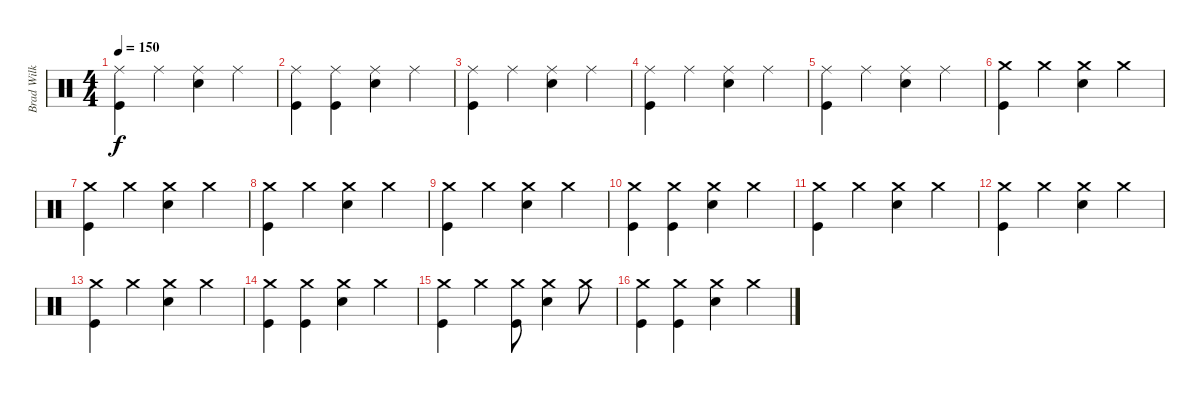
\track ("Brad Wilk" "Brad Wilk") {instrument percussion}
\staff {score}
\articulation defaults
\ts (4 4)
\tempo 150
\clef neutral
\ks c
("Ride (middle)" "Kick (hit)").4{dy f} "Ride (middle)".4 ("Ride (middle)" "Electric Snare (hit)").4 "Ride (middle)".4 |
("Ride (middle)" "Kick (hit)").4 ("Ride (middle)" "Kick (hit)").4 ("Ride (middle)" "Electric Snare (hit)").4 "Ride (middle)".4 |
("Ride (middle)" "Kick (hit)").4 "Ride (middle)".4 ("Ride (middle)" "Electric Snare (hit)").4 "Ride (middle)".4 |
("Ride (middle)" "Kick (hit)").4 "Ride (middle)".4 ("Ride (middle)" "Electric Snare (hit)").4 "Ride (middle)".4 |
("Ride (middle)" "Kick (hit)").4 "Ride (middle)".4 ("Ride (middle)" "Electric Snare (hit)").4 "Ride (middle)".4 |
("Crash medium (hit)" "Kick (hit)").4 "Crash medium (hit)".4 ("Crash medium (hit)" "Electric Snare (hit)").4 "Crash medium (hit)".4 |
("Crash medium (hit)" "Kick (hit)").4 "Crash medium (hit)".4 ("Crash medium (hit)" "Electric Snare (hit)").4 "Crash medium (hit)".4 |
("Crash medium (hit)" "Kick (hit)").4 "Crash medium (hit)".4 ("Crash medium (hit)" "Electric Snare (hit)").4 "Crash medium (hit)".4 |
("Crash medium (hit)" "Kick (hit)").4 "Crash medium (hit)".4 ("Crash medium (hit)" "Electric Snare (hit)").4 "Crash medium (hit)".4 |
("Crash medium (hit)" "Kick (hit)").4 ("Crash medium (hit)" "Kick (hit)").4 ("Crash medium (hit)" "Electric Snare (hit)").4 "Crash medium (hit)".4 |
("Crash medium (hit)" "Kick (hit)").4 "Crash medium (hit)".4 ("Crash medium (hit)" "Electric Snare (hit)").4 "Crash medium (hit)".4 |
("Crash medium (hit)" "Kick (hit)").4 "Crash medium (hit)".4 ("Crash medium (hit)" "Electric Snare (hit)").4 "Crash medium (hit)".4 |
("Crash medium (hit)" "Kick (hit)").4 "Crash medium (hit)".4 ("Crash medium (hit)" "Electric Snare (hit)").4 "Crash medium (hit)".4 |
("Crash medium (hit)" "Kick (hit)").4 ("Crash medium (hit)" "Kick (hit)").4 ("Crash medium (hit)" "Electric Snare (hit)").4 "Crash medium (hit)".4 |
("Crash medium (hit)" "Kick (hit)").4 "Crash medium (hit)".4 ("Crash medium (hit)" "Kick (hit)").8 ("Crash medium (hit)" "Electric Snare (hit)").4 "Crash medium (hit)".8 |
("Crash medium (hit)" "Kick (hit)").4 ("Crash medium (hit)" "Kick (hit)").4 ("Crash medium (hit)" "Electric Snare (hit)").4 "Crash medium (hit)".4
